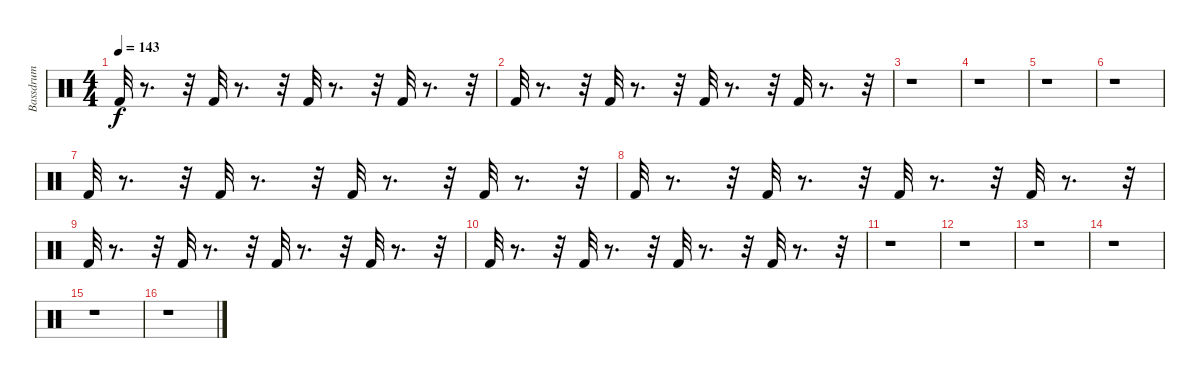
\track ("Bassdrum " "Bassdrum ") {instrument percussion}
\staff {score}
\articulation defaults
\ts (4 4)
\tempo 143
\clef neutral
\ks c "Kick (hit) 2".32{dy f}
r.8{d} r.32 "Kick (hit) 2".32 r.8{d} r.32 "Kick (hit) 2".32 r.8{d} r.32 "Kick (hit) 2".32 r.8{d} r.32 |
"Kick (hit) 2".32 r.8{d} r.32 "Kick (hit) 2".32 r.8{d} r.32 "Kick (hit) 2".32 r.8{d} r.32 "Kick (hit) 2".32 r.8{d} r.32 |
r.1 |
r.1 |
r.1 |
r.1 |
"Kick (hit) 2".32 r.8{d} r.32 "Kick (hit) 2".32 r.8{d} r.32 "Kick (hit) 2".32 r.8{d} r.32 "Kick (hit) 2".32 r.8{d} r.32 |
"Kick (hit) 2".32 r.8{d} r.32 "Kick (hit) 2".32 r.8{d} r.32 "Kick (hit) 2".32 r.8{d} r.32 "Kick (hit) 2".32 r.8{d} r.32 |
"Kick (hit) 2".32 r.8{d} r.32 "Kick (hit) 2".32 r.8{d} r.32 "Kick (hit) 2".32 r.8{d} r.32 "Kick (hit) 2".32 r.8{d} r.32 |
"Kick (hit) 2".32 r.8{d} r.32 "Kick (hit) 2".32 r.8{d} r.32 "Kick (hit) 2".32 r.8{d} r.32 "Kick (hit) 2".32 r.8{d} r.32 |
r.1 |
r.1 |
r.1 |
r.1 |
r.1 |
r.1
